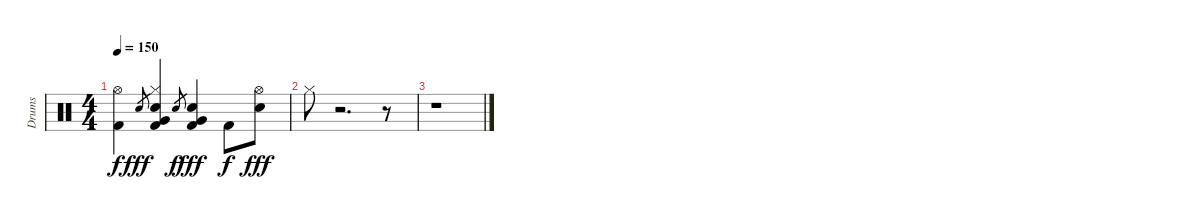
\track ("Drums" "Drums") {instrument percussion}
\staff {score}
\articulation defaults
\ts (4 4)
\tempo 150
\clef neutral
\ks c
("Hi-Hat (open)" "Kick (hit) 2").4{dy f} "Snare (hit) 2".8{gr dy fff} ("Hi-Hat (closed)" "Snare (hit) 2" "Very Low Tom (hit)" "Kick (hit) 2").4 "Snare (hit) 2".8{gr dy f} ("Snare (hit) 2" "Very Low Tom (hit)" "Kick (hit) 2").4{dy fff} "Kick (hit) 2".8{dy f} ("Hi-Hat (open)" "Snare (hit) 2").8{dy fff} |
"Hi-Hat (closed)".8 r.2{d} r.8 |
r.1
